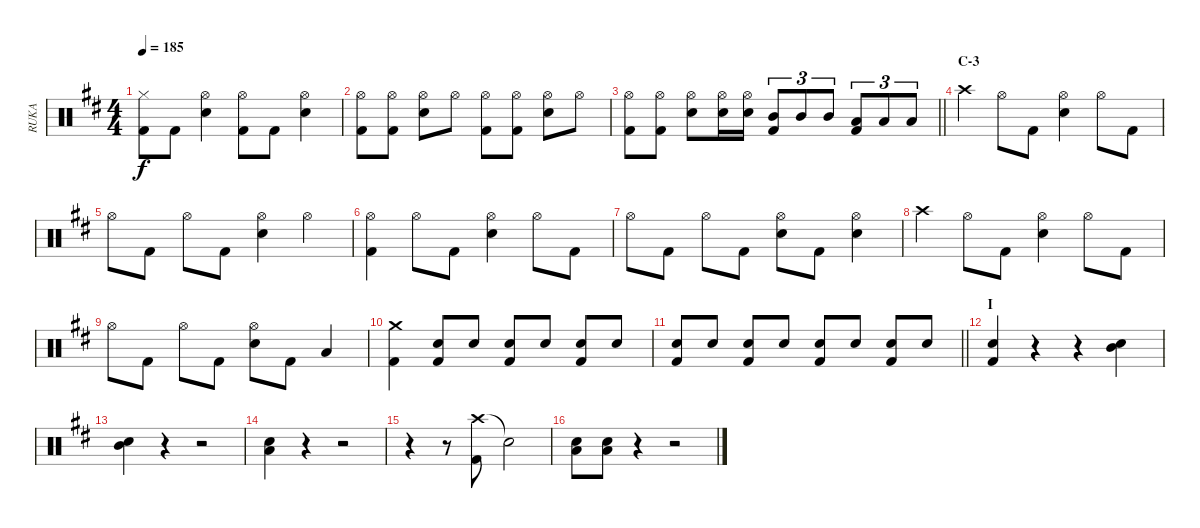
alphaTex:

\track ("RUKA" "RUKA") {instrument percussion}
\staff {score}
\articulation defaults
\ts (4 4)
\tempo 185
\clef neutral
\ks d
("Hi-Hat (closed)" "Kick (hit) 2").8{dy f} "Kick (hit) 2".8 ("Hi-Hat (open)" "Snare (hit) 2").4 ("Hi-Hat (open)" "Kick (hit) 2").8 "Kick (hit) 2".8 ("Hi-Hat (open)" "Snare (hit) 2").4 |
("Hi-Hat (open)" "Kick (hit) 2").8 ("Hi-Hat (open)" "Kick (hit) 2").8 ("Hi-Hat (open)" "Snare (hit) 2").8 "Hi-Hat (open)".8 ("Hi-Hat (open)" "Kick (hit) 2").8 ("Hi-Hat (open)" "Kick (hit) 2").8 ("Hi-Hat (open)" "Snare (hit) 2").8 "Hi-Hat (open)".8 |
\barLineRight lightlight
("Hi-Hat (open)" "Kick (hit) 2").8 ("Hi-Hat (open)" "Kick (hit) 2").8 ("Hi-Hat (open)" "Snare (hit) 2").8 ("Hi-Hat (open)" "Snare (hit) 2").16 ("Hi-Hat (open)" "Snare (hit) 2").16 ("Mid Tom (hit)" "Kick (hit) 2").8{tu (3 2)} "Mid Tom (hit)".8{tu (3 2)} "Mid Tom (hit)".8{tu (3 2)} ("Low Tom (hit)" "Kick (hit) 2").8{tu (3 2)} "Low Tom (hit)".8{tu (3 2)} "Low Tom (hit)".8{tu (3 2)} |
\section ("" "C-3")
"Crash high (hit)".4 "Hi-Hat (open)".8 "Kick (hit) 2".8 ("Hi-Hat (open)" "Snare (hit) 2").4 "Hi-Hat (open)".8 "Kick (hit) 2".8 |
"Hi-Hat (open)".8 "Kick (hit) 2".8 "Hi-Hat (open)".8 "Kick (hit) 2".8 ("Hi-Hat (open)" "Snare (hit) 2").4 "Hi-Hat (open)".4 |
("Hi-Hat (open)" "Kick (hit) 2").4 "Hi-Hat (open)".8 "Kick (hit) 2".8 ("Hi-Hat (open)" "Snare (hit) 2").4 "Hi-Hat (open)".8 "Kick (hit) 2".8 |
"Hi-Hat (open)".8 "Kick (hit) 2".8 "Hi-Hat (open)".8 "Kick (hit) 2".8 ("Hi-Hat (open)" "Snare (hit) 2").8 "Kick (hit) 2".8 ("Hi-Hat (open)" "Snare (hit) 2").4 |
"Crash high (hit)".4 "Hi-Hat (open)".8 "Kick (hit) 2".8 ("Hi-Hat (open)" "Snare (hit) 2").4 "Hi-Hat (open)".8 "Kick (hit) 2".8 |
"Hi-Hat (open)".8 "Kick (hit) 2".8 "Hi-Hat (open)".8 "Kick (hit) 2".8 ("Hi-Hat (open)" "Snare (hit) 2").8 "Kick (hit) 2".8 "Low Tom (hit)".4 |
("Crash medium (hit)" "Kick (hit) 2").4 ("Snare (hit) 2" "Kick (hit) 2").8 "Snare (hit) 2".8 ("Snare (hit) 2" "Kick (hit) 2").8 "Snare (hit) 2".8 ("Snare (hit) 2" "Kick (hit) 2").8 "Snare (hit) 2".8 |
\barLineRight lightlight
("Snare (hit) 2" "Kick (hit) 2").8 "Snare (hit) 2".8 ("Snare (hit) 2" "Kick (hit) 2").8 "Snare (hit) 2".8 ("Snare (hit) 2" "Kick (hit) 2").8 "Snare (hit) 2".8 ("Snare (hit) 2" "Kick (hit) 2").8 "Snare (hit) 2".8 |
\section ("" "I")
("Snare (hit) 2" "Kick (hit) 2").4 r.4 r.4 ("Mid Tom (hit)" "Snare (hit) 2").4 |
("Mid Tom (hit)" "Snare (hit) 2").4 r.4 r.2 |
("Low Tom (hit)" "Snare (hit) 2").4 r.4 r.2 |
r.4 r.8 ("Crash high (hit)" "Kick (hit) 2").8 "Snare (hit)"{t}.2 |
("Low Tom (hit)" "Snare (hit) 2").8 ("Low Tom (hit)" "Snare (hit) 2").8 r.4 r.2
